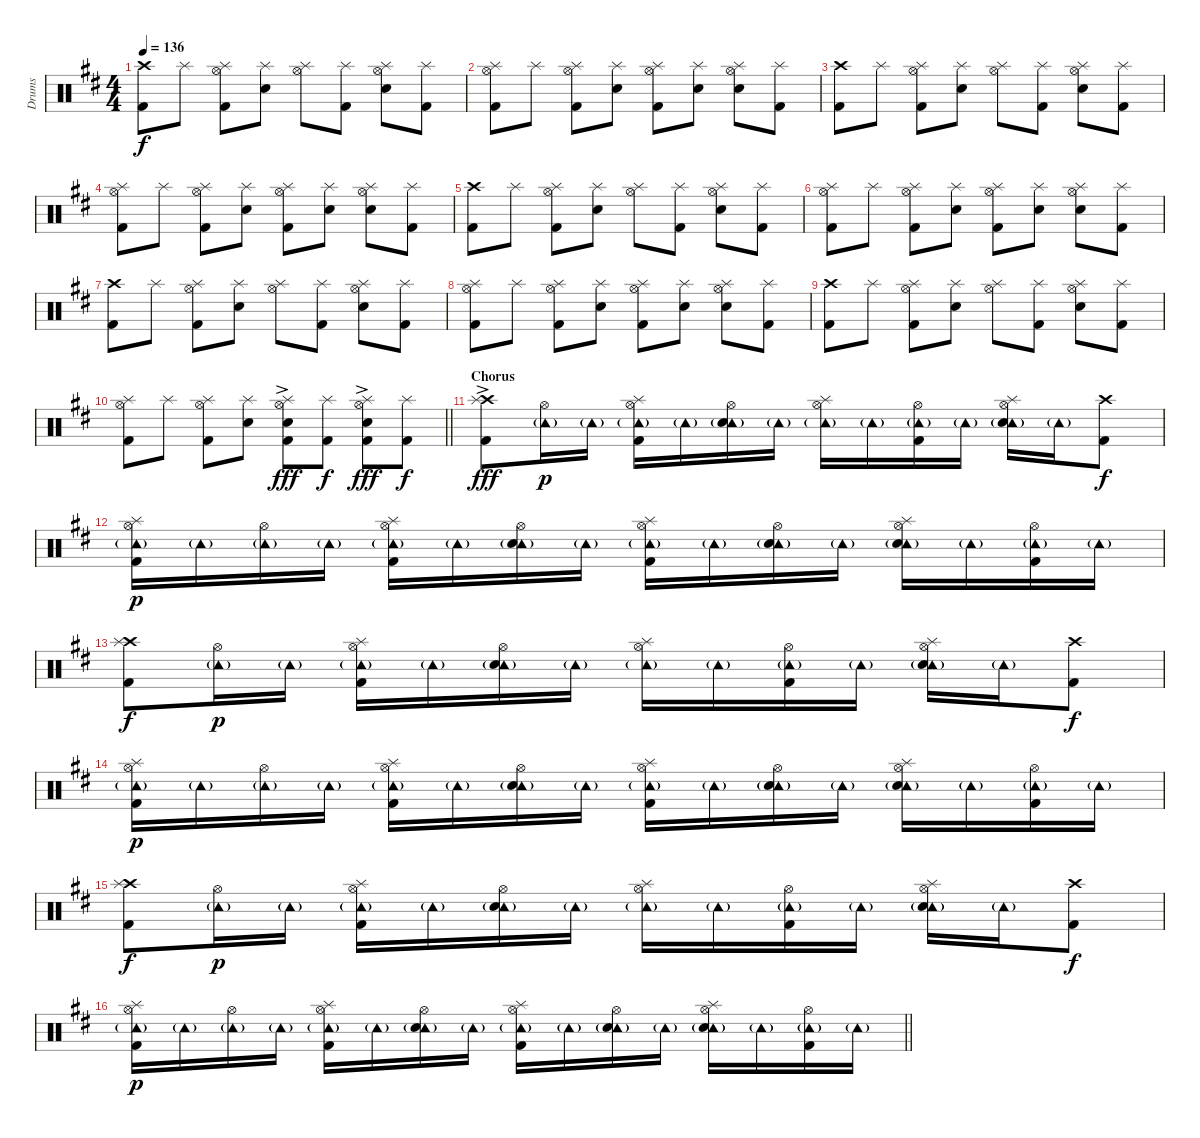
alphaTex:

\track ("Drums" "Drums") {instrument percussion}
\staff {score}
\articulation defaults
\ts (4 4)
\tempo 136
\clef neutral
\ks d
("Crash high (hit)" "Kick (hit) 2").8{dy f} "Splash (hit)".8 ("Hi-Hat (open)" "Splash (hit)" "Kick (hit) 2").8 ("Splash (hit)" "Snare (hit) 2").8 ("Hi-Hat (open)" "Splash (hit)").8 ("Splash (hit)" "Kick (hit) 2").8 ("Hi-Hat (open)" "Splash (hit)" "Snare (hit) 2").8 ("Splash (hit)" "Kick (hit) 2").8 |
("Hi-Hat (open)" "Splash (hit)" "Kick (hit) 2").8 "Splash (hit)".8 ("Hi-Hat (open)" "Splash (hit)" "Kick (hit) 2").8 ("Splash (hit)" "Snare (hit) 2").8 ("Hi-Hat (open)" "Splash (hit)" "Kick (hit) 2").8 ("Splash (hit)" "Snare (hit) 2").8 ("Hi-Hat (open)" "Splash (hit)" "Snare (hit) 2").8 ("Splash (hit)" "Kick (hit) 2").8 |
("Crash high (hit)" "Kick (hit) 2").8 "Splash (hit)".8 ("Hi-Hat (open)" "Splash (hit)" "Kick (hit) 2").8 ("Splash (hit)" "Snare (hit) 2").8 ("Hi-Hat (open)" "Splash (hit)").8 ("Splash (hit)" "Kick (hit) 2").8 ("Hi-Hat (open)" "Splash (hit)" "Snare (hit) 2").8 ("Splash (hit)" "Kick (hit) 2").8 |
("Hi-Hat (open)" "Splash (hit)" "Kick (hit) 2").8 "Splash (hit)".8 ("Hi-Hat (open)" "Splash (hit)" "Kick (hit) 2").8 ("Splash (hit)" "Snare (hit) 2").8 ("Hi-Hat (open)" "Splash (hit)" "Kick (hit) 2").8 ("Splash (hit)" "Snare (hit) 2").8 ("Hi-Hat (open)" "Splash (hit)" "Snare (hit) 2").8 ("Splash (hit)" "Kick (hit) 2").8 |
("Crash high (hit)" "Kick (hit) 2").8 "Splash (hit)".8 ("Hi-Hat (open)" "Splash (hit)" "Kick (hit) 2").8 ("Splash (hit)" "Snare (hit) 2").8 ("Hi-Hat (open)" "Splash (hit)").8 ("Splash (hit)" "Kick (hit) 2").8 ("Hi-Hat (open)" "Splash (hit)" "Snare (hit) 2").8 ("Splash (hit)" "Kick (hit) 2").8 |
("Hi-Hat (open)" "Splash (hit)" "Kick (hit) 2").8 "Splash (hit)".8 ("Hi-Hat (open)" "Splash (hit)" "Kick (hit) 2").8 ("Splash (hit)" "Snare (hit) 2").8 ("Hi-Hat (open)" "Splash (hit)" "Kick (hit) 2").8 ("Splash (hit)" "Snare (hit) 2").8 ("Hi-Hat (open)" "Splash (hit)" "Snare (hit) 2").8 ("Splash (hit)" "Kick (hit) 2").8 |
("Crash high (hit)" "Kick (hit) 2").8 "Splash (hit)".8 ("Hi-Hat (open)" "Splash (hit)" "Kick (hit) 2").8 ("Splash (hit)" "Snare (hit) 2").8 ("Hi-Hat (open)" "Splash (hit)").8 ("Splash (hit)" "Kick (hit) 2").8 ("Hi-Hat (open)" "Splash (hit)" "Snare (hit) 2").8 ("Splash (hit)" "Kick (hit) 2").8 |
("Hi-Hat (open)" "Splash (hit)" "Kick (hit) 2").8 "Splash (hit)".8 ("Hi-Hat (open)" "Splash (hit)" "Kick (hit) 2").8 ("Splash (hit)" "Snare (hit) 2").8 ("Hi-Hat (open)" "Splash (hit)" "Kick (hit) 2").8 ("Splash (hit)" "Snare (hit) 2").8 ("Hi-Hat (open)" "Splash (hit)" "Snare (hit) 2").8 ("Splash (hit)" "Kick (hit) 2").8 |
("Crash high (hit)" "Kick (hit) 2").8 "Splash (hit)".8 ("Hi-Hat (open)" "Splash (hit)" "Kick (hit) 2").8 ("Splash (hit)" "Snare (hit) 2").8 ("Hi-Hat (open)" "Splash (hit)").8 ("Splash (hit)" "Kick (hit) 2").8 ("Hi-Hat (open)" "Splash (hit)" "Snare (hit) 2").8 ("Splash (hit)" "Kick (hit) 2").8 |
\barLineRight lightlight
("Hi-Hat (open)" "Splash (hit)" "Kick (hit) 2").8 "Splash (hit)".8 ("Hi-Hat (open)" "Splash (hit)" "Kick (hit) 2").8 ("Splash (hit)" "Snare (hit) 2").8 ("Hi-Hat (open)" "Splash (hit)" "Snare (hit) 2"{ac} "Kick (hit) 2"{ac}).8{dy fff} ("Splash (hit)" "Kick (hit) 2").8{dy f} ("Hi-Hat (open)" "Splash (hit)" "Snare (hit) 2"{ac} "Kick (hit) 2"{ac}).8{dy fff} ("Splash (hit)" "Kick (hit) 2").8{dy f} |
\section ("" "Chorus")
("Crash high (hit)"{ac} "Splash (hit)" "Kick (hit) 2"{ac}).8{dy fff} ("Hi-Hat (open)" "Tambourine (hit)"{g}).16{dy p} "Tambourine (hit)"{g}.16 ("Hi-Hat (open)" "Splash (hit)" "Tambourine (hit)"{g} "Kick (hit) 2").16 "Tambourine (hit)"{g}.16 ("Hi-Hat (open)" "Tambourine (hit)"{g} "Snare (hit) 2").16 "Tambourine (hit)"{g}.16 ("Hi-Hat (open)" "Splash (hit)" "Tambourine (hit)"{g}).16 "Tambourine (hit)"{g}.16 ("Hi-Hat (open)" "Tambourine (hit)"{g} "Kick (hit) 2").16 "Tambourine (hit)"{g}.16 ("Hi-Hat (open)" "Splash (hit)" "Tambourine (hit)"{g} "Snare (hit) 2").16 "Tambourine (hit)"{g}.16 ("Crash high (hit)" "Kick (hit) 2").8{dy f} |
("Hi-Hat (open)" "Splash (hit)" "Tambourine (hit)"{g} "Kick (hit) 2").16{dy p} "Tambourine (hit)"{g}.16 ("Hi-Hat (open)" "Tambourine (hit)"{g}).16 "Tambourine (hit)"{g}.16 ("Hi-Hat (open)" "Splash (hit)" "Tambourine (hit)"{g} "Kick (hit) 2").16 "Tambourine (hit)"{g}.16 ("Hi-Hat (open)" "Tambourine (hit)"{g} "Snare (hit) 2").16 "Tambourine (hit)"{g}.16 ("Hi-Hat (open)" "Splash (hit)" "Tambourine (hit)"{g} "Kick (hit) 2").16 "Tambourine (hit)"{g}.16 ("Hi-Hat (open)" "Tambourine (hit)"{g} "Snare (hit) 2").16 "Tambourine (hit)"{g}.16 ("Hi-Hat (open)" "Splash (hit)" "Tambourine (hit)"{g} "Snare (hit) 2").16 "Tambourine (hit)"{g}.16 ("Hi-Hat (open)" "Tambourine (hit)"{g} "Kick (hit) 2").16 "Tambourine (hit)"{g}.16 |
("Crash high (hit)" "Splash (hit)" "Kick (hit) 2").8{dy f} ("Hi-Hat (open)" "Tambourine (hit)"{g}).16{dy p} "Tambourine (hit)"{g}.16 ("Hi-Hat (open)" "Splash (hit)" "Tambourine (hit)"{g} "Kick (hit) 2").16 "Tambourine (hit)"{g}.16 ("Hi-Hat (open)" "Tambourine (hit)"{g} "Snare (hit) 2").16 "Tambourine (hit)"{g}.16 ("Hi-Hat (open)" "Splash (hit)" "Tambourine (hit)"{g}).16 "Tambourine (hit)"{g}.16 ("Hi-Hat (open)" "Tambourine (hit)"{g} "Kick (hit) 2").16 "Tambourine (hit)"{g}.16 ("Hi-Hat (open)" "Splash (hit)" "Tambourine (hit)"{g} "Snare (hit) 2").16 "Tambourine (hit)"{g}.16 ("Crash high (hit)" "Kick (hit) 2").8{dy f} |
("Hi-Hat (open)" "Splash (hit)" "Tambourine (hit)"{g} "Kick (hit) 2").16{dy p} "Tambourine (hit)"{g}.16 ("Hi-Hat (open)" "Tambourine (hit)"{g}).16 "Tambourine (hit)"{g}.16 ("Hi-Hat (open)" "Splash (hit)" "Tambourine (hit)"{g} "Kick (hit) 2").16 "Tambourine (hit)"{g}.16 ("Hi-Hat (open)" "Tambourine (hit)"{g} "Snare (hit) 2").16 "Tambourine (hit)"{g}.16 ("Hi-Hat (open)" "Splash (hit)" "Tambourine (hit)"{g} "Kick (hit) 2").16 "Tambourine (hit)"{g}.16 ("Hi-Hat (open)" "Tambourine (hit)"{g} "Snare (hit) 2").16 "Tambourine (hit)"{g}.16 ("Hi-Hat (open)" "Splash (hit)" "Tambourine (hit)"{g} "Snare (hit) 2").16 "Tambourine (hit)"{g}.16 ("Hi-Hat (open)" "Tambourine (hit)"{g} "Kick (hit) 2").16 "Tambourine (hit)"{g}.16 |
("Crash high (hit)" "Splash (hit)" "Kick (hit) 2").8{dy f} ("Hi-Hat (open)" "Tambourine (hit)"{g}).16{dy p} "Tambourine (hit)"{g}.16 ("Hi-Hat (open)" "Splash (hit)" "Tambourine (hit)"{g} "Kick (hit) 2").16 "Tambourine (hit)"{g}.16 ("Hi-Hat (open)" "Tambourine (hit)"{g} "Snare (hit) 2").16 "Tambourine (hit)"{g}.16 ("Hi-Hat (open)" "Splash (hit)" "Tambourine (hit)"{g}).16 "Tambourine (hit)"{g}.16 ("Hi-Hat (open)" "Tambourine (hit)"{g} "Kick (hit) 2").16 "Tambourine (hit)"{g}.16 ("Hi-Hat (open)" "Splash (hit)" "Tambourine (hit)"{g} "Snare (hit) 2").16 "Tambourine (hit)"{g}.16 ("Crash high (hit)" "Kick (hit) 2").8{dy f} |
\barLineRight lightlight
("Hi-Hat (open)" "Splash (hit)" "Tambourine (hit)"{g} "Kick (hit) 2").16{dy p} "Tambourine (hit)"{g}.16 ("Hi-Hat (open)" "Tambourine (hit)"{g}).16 "Tambourine (hit)"{g}.16 ("Hi-Hat (open)" "Splash (hit)" "Tambourine (hit)"{g} "Kick (hit) 2").16 "Tambourine (hit)"{g}.16 ("Hi-Hat (open)" "Tambourine (hit)"{g} "Snare (hit) 2").16 "Tambourine (hit)"{g}.16 ("Hi-Hat (open)" "Splash (hit)" "Tambourine (hit)"{g} "Kick (hit) 2").16 "Tambourine (hit)"{g}.16 ("Hi-Hat (open)" "Tambourine (hit)"{g} "Snare (hit) 2").16 "Tambourine (hit)"{g}.16 ("Hi-Hat (open)" "Splash (hit)" "Tambourine (hit)"{g} "Snare (hit) 2").16 "Tambourine (hit)"{g}.16 ("Hi-Hat (open)" "Tambourine (hit)"{g} "Kick (hit) 2").16 "Tambourine (hit)"{g}.16
